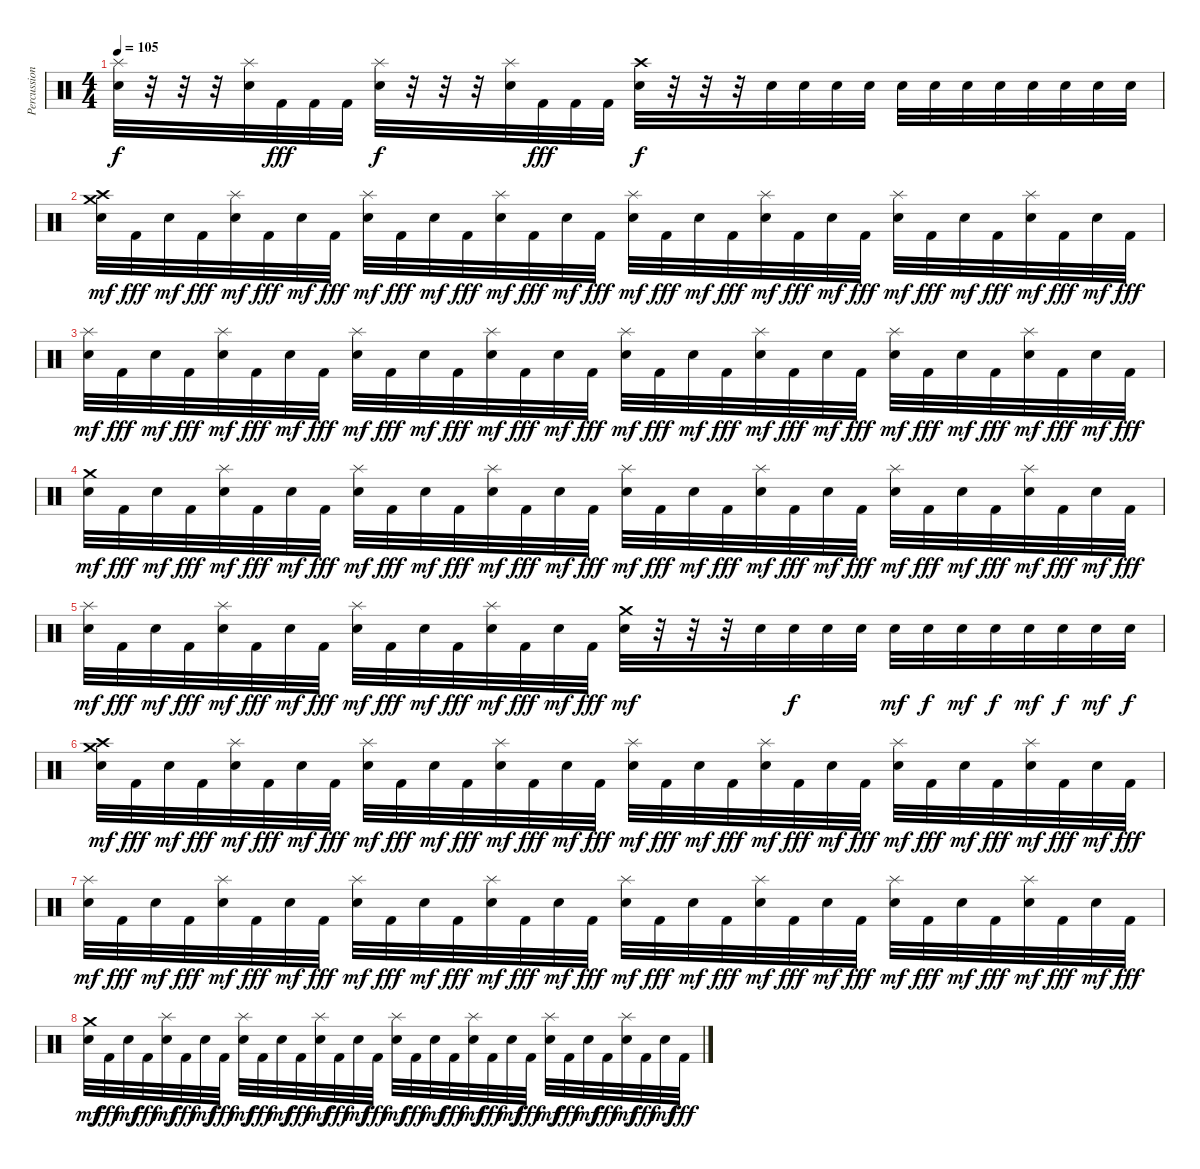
\track ("Percussions" "Percussion") {instrument percussion}
\staff {score}
\articulation defaults
\ts (4 4)
\tempo 105
\clef neutral
\ks c
("Splash (hit)" "Electric Snare (hit)").32{dy f} r.32 r.32 r.32 ("Splash (hit)" "Electric Snare (hit)").32 "Kick (hit) 2".32{dy fff} "Kick (hit) 2".32 "Kick (hit) 2".32 ("Splash (hit)" "Electric Snare (hit)").32{dy f} r.32 r.32 r.32 ("Splash (hit)" "Electric Snare (hit)").32 "Kick (hit) 2".32{dy fff} "Kick (hit) 2".32 "Kick (hit) 2".32 ("Crash high (hit)" "Electric Snare (hit)").32{dy f} r.32 r.32 r.32 "Electric Snare (hit)".32 "Electric Snare (hit)".32 "Electric Snare (hit)".32 "Electric Snare (hit)".32 "Electric Snare (hit)".32 "Electric Snare (hit)".32 "Electric Snare (hit)".32 "Electric Snare (hit)".32 "Electric Snare (hit)".32 "Electric Snare (hit)".32 "Electric Snare (hit)".32 "Electric Snare (hit)".32 |
("Crash high (hit)" "Crash medium (hit)" "Electric Snare (hit)").32{dy mf} "Kick (hit) 2".32{dy fff} "Electric Snare (hit)".32{dy mf} "Kick (hit) 2".32{dy fff} ("Splash (hit)" "Electric Snare (hit)").32{dy mf} "Kick (hit) 2".32{dy fff} "Electric Snare (hit)".32{dy mf} "Kick (hit) 2".32{dy fff} ("Splash (hit)" "Electric Snare (hit)").32{dy mf} "Kick (hit) 2".32{dy fff} "Electric Snare (hit)".32{dy mf} "Kick (hit) 2".32{dy fff} ("Splash (hit)" "Electric Snare (hit)").32{dy mf} "Kick (hit) 2".32{dy fff} "Electric Snare (hit)".32{dy mf} "Kick (hit) 2".32{dy fff} ("Splash (hit)" "Electric Snare (hit)").32{dy mf} "Kick (hit) 2".32{dy fff} "Electric Snare (hit)".32{dy mf} "Kick (hit) 2".32{dy fff} ("Splash (hit)" "Electric Snare (hit)").32{dy mf} "Kick (hit) 2".32{dy fff} "Electric Snare (hit)".32{dy mf} "Kick (hit) 2".32{dy fff} ("Splash (hit)" "Electric Snare (hit)").32{dy mf} "Kick (hit) 2".32{dy fff} "Electric Snare (hit)".32{dy mf} "Kick (hit) 2".32{dy fff} ("Splash (hit)" "Electric Snare (hit)").32{dy mf} "Kick (hit) 2".32{dy fff} "Electric Snare (hit)".32{dy mf} "Kick (hit) 2".32{dy fff} |
("Splash (hit)" "Electric Snare (hit)").32{dy mf} "Kick (hit) 2".32{dy fff} "Electric Snare (hit)".32{dy mf} "Kick (hit) 2".32{dy fff} ("Splash (hit)" "Electric Snare (hit)").32{dy mf} "Kick (hit) 2".32{dy fff} "Electric Snare (hit)".32{dy mf} "Kick (hit) 2".32{dy fff} ("Splash (hit)" "Electric Snare (hit)").32{dy mf} "Kick (hit) 2".32{dy fff} "Electric Snare (hit)".32{dy mf} "Kick (hit) 2".32{dy fff} ("Splash (hit)" "Electric Snare (hit)").32{dy mf} "Kick (hit) 2".32{dy fff} "Electric Snare (hit)".32{dy mf} "Kick (hit) 2".32{dy fff} ("Splash (hit)" "Electric Snare (hit)").32{dy mf} "Kick (hit) 2".32{dy fff} "Electric Snare (hit)".32{dy mf} "Kick (hit) 2".32{dy fff} ("Splash (hit)" "Electric Snare (hit)").32{dy mf} "Kick (hit) 2".32{dy fff} "Electric Snare (hit)".32{dy mf} "Kick (hit) 2".32{dy fff} ("Splash (hit)" "Electric Snare (hit)").32{dy mf} "Kick (hit) 2".32{dy fff} "Electric Snare (hit)".32{dy mf} "Kick (hit) 2".32{dy fff} ("Splash (hit)" "Electric Snare (hit)").32{dy mf} "Kick (hit) 2".32{dy fff} "Electric Snare (hit)".32{dy mf} "Kick (hit) 2".32{dy fff} |
("Crash medium (hit)" "Electric Snare (hit)").32{dy mf} "Kick (hit) 2".32{dy fff} "Electric Snare (hit)".32{dy mf} "Kick (hit) 2".32{dy fff} ("Splash (hit)" "Electric Snare (hit)").32{dy mf} "Kick (hit) 2".32{dy fff} "Electric Snare (hit)".32{dy mf} "Kick (hit) 2".32{dy fff} ("Splash (hit)" "Electric Snare (hit)").32{dy mf} "Kick (hit) 2".32{dy fff} "Electric Snare (hit)".32{dy mf} "Kick (hit) 2".32{dy fff} ("Splash (hit)" "Electric Snare (hit)").32{dy mf} "Kick (hit) 2".32{dy fff} "Electric Snare (hit)".32{dy mf} "Kick (hit) 2".32{dy fff} ("Splash (hit)" "Electric Snare (hit)").32{dy mf} "Kick (hit) 2".32{dy fff} "Electric Snare (hit)".32{dy mf} "Kick (hit) 2".32{dy fff} ("Splash (hit)" "Electric Snare (hit)").32{dy mf} "Kick (hit) 2".32{dy fff} "Electric Snare (hit)".32{dy mf} "Kick (hit) 2".32{dy fff} ("Splash (hit)" "Electric Snare (hit)").32{dy mf} "Kick (hit) 2".32{dy fff} "Electric Snare (hit)".32{dy mf} "Kick (hit) 2".32{dy fff} ("Splash (hit)" "Electric Snare (hit)").32{dy mf} "Kick (hit) 2".32{dy fff} "Electric Snare (hit)".32{dy mf} "Kick (hit) 2".32{dy fff} |
("Splash (hit)" "Electric Snare (hit)").32{dy mf} "Kick (hit) 2".32{dy fff} "Electric Snare (hit)".32{dy mf} "Kick (hit) 2".32{dy fff} ("Splash (hit)" "Electric Snare (hit)").32{dy mf} "Kick (hit) 2".32{dy fff} "Electric Snare (hit)".32{dy mf} "Kick (hit) 2".32{dy fff} ("Splash (hit)" "Electric Snare (hit)").32{dy mf} "Kick (hit) 2".32{dy fff} "Electric Snare (hit)".32{dy mf} "Kick (hit) 2".32{dy fff} ("Splash (hit)" "Electric Snare (hit)").32{dy mf} "Kick (hit) 2".32{dy fff} "Electric Snare (hit)".32{dy mf} "Kick (hit) 2".32{dy fff} ("Crash medium (hit)" "Electric Snare (hit)").32{dy mf} r.32 r.32 r.32 "Electric Snare (hit)".32 "Electric Snare (hit)".32{dy f} "Electric Snare (hit)".32 "Electric Snare (hit)".32 "Electric Snare (hit)".32{dy mf} "Electric Snare (hit)".32{dy f} "Electric Snare (hit)".32{dy mf} "Electric Snare (hit)".32{dy f} "Electric Snare (hit)".32{dy mf} "Electric Snare (hit)".32{dy f} "Electric Snare (hit)".32{dy mf} "Electric Snare (hit)".32{dy f} |
("Crash high (hit)" "Crash medium (hit)" "Electric Snare (hit)").32{dy mf} "Kick (hit) 2".32{dy fff} "Electric Snare (hit)".32{dy mf} "Kick (hit) 2".32{dy fff} ("Splash (hit)" "Electric Snare (hit)").32{dy mf} "Kick (hit) 2".32{dy fff} "Electric Snare (hit)".32{dy mf} "Kick (hit) 2".32{dy fff} ("Splash (hit)" "Electric Snare (hit)").32{dy mf} "Kick (hit) 2".32{dy fff} "Electric Snare (hit)".32{dy mf} "Kick (hit) 2".32{dy fff} ("Splash (hit)" "Electric Snare (hit)").32{dy mf} "Kick (hit) 2".32{dy fff} "Electric Snare (hit)".32{dy mf} "Kick (hit) 2".32{dy fff} ("Splash (hit)" "Electric Snare (hit)").32{dy mf} "Kick (hit) 2".32{dy fff} "Electric Snare (hit)".32{dy mf} "Kick (hit) 2".32{dy fff} ("Splash (hit)" "Electric Snare (hit)").32{dy mf} "Kick (hit) 2".32{dy fff} "Electric Snare (hit)".32{dy mf} "Kick (hit) 2".32{dy fff} ("Splash (hit)" "Electric Snare (hit)").32{dy mf} "Kick (hit) 2".32{dy fff} "Electric Snare (hit)".32{dy mf} "Kick (hit) 2".32{dy fff} ("Splash (hit)" "Electric Snare (hit)").32{dy mf} "Kick (hit) 2".32{dy fff} "Electric Snare (hit)".32{dy mf} "Kick (hit) 2".32{dy fff} |
("Splash (hit)" "Electric Snare (hit)").32{dy mf} "Kick (hit) 2".32{dy fff} "Electric Snare (hit)".32{dy mf} "Kick (hit) 2".32{dy fff} ("Splash (hit)" "Electric Snare (hit)").32{dy mf} "Kick (hit) 2".32{dy fff} "Electric Snare (hit)".32{dy mf} "Kick (hit) 2".32{dy fff} ("Splash (hit)" "Electric Snare (hit)").32{dy mf} "Kick (hit) 2".32{dy fff} "Electric Snare (hit)".32{dy mf} "Kick (hit) 2".32{dy fff} ("Splash (hit)" "Electric Snare (hit)").32{dy mf} "Kick (hit) 2".32{dy fff} "Electric Snare (hit)".32{dy mf} "Kick (hit) 2".32{dy fff} ("Splash (hit)" "Electric Snare (hit)").32{dy mf} "Kick (hit) 2".32{dy fff} "Electric Snare (hit)".32{dy mf} "Kick (hit) 2".32{dy fff} ("Splash (hit)" "Electric Snare (hit)").32{dy mf} "Kick (hit) 2".32{dy fff} "Electric Snare (hit)".32{dy mf} "Kick (hit) 2".32{dy fff} ("Splash (hit)" "Electric Snare (hit)").32{dy mf} "Kick (hit) 2".32{dy fff} "Electric Snare (hit)".32{dy mf} "Kick (hit) 2".32{dy fff} ("Splash (hit)" "Electric Snare (hit)").32{dy mf} "Kick (hit) 2".32{dy fff} "Electric Snare (hit)".32{dy mf} "Kick (hit) 2".32{dy fff} |
("Crash medium (hit)" "Electric Snare (hit)").32{dy mf} "Kick (hit) 2".32{dy fff} "Electric Snare (hit)".32{dy mf} "Kick (hit) 2".32{dy fff} ("Splash (hit)" "Electric Snare (hit)").32{dy mf} "Kick (hit) 2".32{dy fff} "Electric Snare (hit)".32{dy mf} "Kick (hit) 2".32{dy fff} ("Splash (hit)" "Electric Snare (hit)").32{dy mf} "Kick (hit) 2".32{dy fff} "Electric Snare (hit)".32{dy mf} "Kick (hit) 2".32{dy fff} ("Splash (hit)" "Electric Snare (hit)").32{dy mf} "Kick (hit) 2".32{dy fff} "Electric Snare (hit)".32{dy mf} "Kick (hit) 2".32{dy fff} ("Splash (hit)" "Electric Snare (hit)").32{dy mf} "Kick (hit) 2".32{dy fff} "Electric Snare (hit)".32{dy mf} "Kick (hit) 2".32{dy fff} ("Splash (hit)" "Electric Snare (hit)").32{dy mf} "Kick (hit) 2".32{dy fff} "Electric Snare (hit)".32{dy mf} "Kick (hit) 2".32{dy fff} ("Splash (hit)" "Electric Snare (hit)").32{dy mf} "Kick (hit) 2".32{dy fff} "Electric Snare (hit)".32{dy mf} "Kick (hit) 2".32{dy fff} ("Splash (hit)" "Electric Snare (hit)").32{dy mf} "Kick (hit) 2".32{dy fff} "Electric Snare (hit)".32{dy mf} "Kick (hit) 2".32{dy fff}
